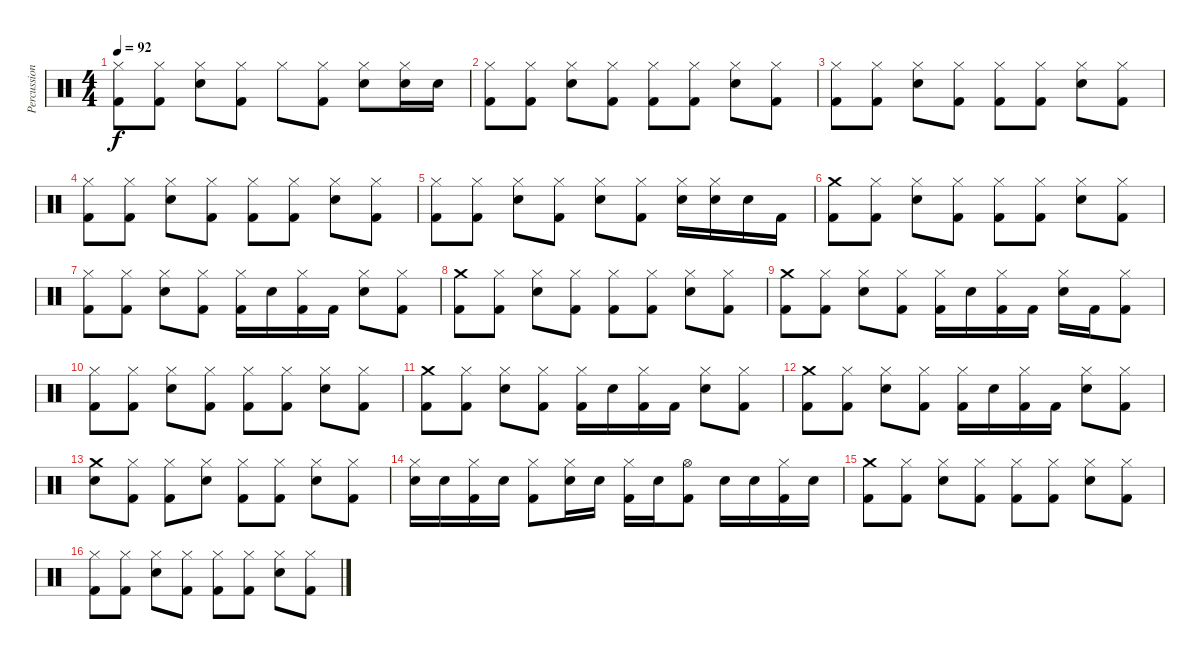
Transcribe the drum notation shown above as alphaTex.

\track ("Percussions" "Percussion") {instrument percussion}
\staff {score}
\articulation defaults
\ts (4 4)
\tempo 92
\clef neutral
\ks c
("Hi-Hat (closed)" "Kick (hit) 2").8{dy f} ("Hi-Hat (closed)" "Kick (hit) 2").8 ("Hi-Hat (closed)" "Electric Snare (hit)").8 ("Hi-Hat (closed)" "Kick (hit) 2").8 "Hi-Hat (closed)".8 ("Hi-Hat (closed)" "Kick (hit) 2").8 ("Hi-Hat (closed)" "Electric Snare (hit)").8 ("Hi-Hat (closed)" "Electric Snare (hit)").16 "Electric Snare (hit)".16 |
("Hi-Hat (closed)" "Kick (hit) 2").8 ("Hi-Hat (closed)" "Kick (hit) 2").8 ("Hi-Hat (closed)" "Electric Snare (hit)").8 ("Hi-Hat (closed)" "Kick (hit) 2").8 ("Hi-Hat (closed)" "Kick (hit) 2").8 ("Hi-Hat (closed)" "Kick (hit) 2").8 ("Hi-Hat (closed)" "Electric Snare (hit)").8 ("Hi-Hat (closed)" "Kick (hit) 2").8 |
("Hi-Hat (closed)" "Kick (hit) 2").8 ("Hi-Hat (closed)" "Kick (hit) 2").8 ("Hi-Hat (closed)" "Electric Snare (hit)").8 ("Hi-Hat (closed)" "Kick (hit) 2").8 ("Hi-Hat (closed)" "Kick (hit) 2").8 ("Hi-Hat (closed)" "Kick (hit) 2").8 ("Hi-Hat (closed)" "Electric Snare (hit)").8 ("Hi-Hat (closed)" "Kick (hit) 2").8 |
("Hi-Hat (closed)" "Kick (hit) 2").8 ("Hi-Hat (closed)" "Kick (hit) 2").8 ("Hi-Hat (closed)" "Electric Snare (hit)").8 ("Hi-Hat (closed)" "Kick (hit) 2").8 ("Hi-Hat (closed)" "Kick (hit) 2").8 ("Hi-Hat (closed)" "Kick (hit) 2").8 ("Hi-Hat (closed)" "Electric Snare (hit)").8 ("Hi-Hat (closed)" "Kick (hit) 2").8 |
("Hi-Hat (closed)" "Kick (hit) 2").8 ("Hi-Hat (closed)" "Kick (hit) 2").8 ("Hi-Hat (closed)" "Electric Snare (hit)").8 ("Hi-Hat (closed)" "Kick (hit) 2").8 ("Hi-Hat (closed)" "Electric Snare (hit)").8 ("Hi-Hat (closed)" "Kick (hit) 2").8 ("Hi-Hat (closed)" "Electric Snare (hit)").16 ("Hi-Hat (closed)" "Snare (hit) 2").16 "Snare (hit) 2".16 "Kick (hit) 2".16 |
("Crash medium (hit)" "Kick (hit) 2").8 ("Hi-Hat (closed)" "Kick (hit) 2").8 ("Hi-Hat (closed)" "Electric Snare (hit)").8 ("Hi-Hat (closed)" "Kick (hit) 2").8 ("Hi-Hat (closed)" "Kick (hit) 2").8 ("Hi-Hat (closed)" "Kick (hit) 2").8 ("Hi-Hat (closed)" "Electric Snare (hit)").8 ("Hi-Hat (closed)" "Kick (hit) 2").8 |
("Hi-Hat (closed)" "Kick (hit) 2").8 ("Hi-Hat (closed)" "Kick (hit) 2").8 ("Hi-Hat (closed)" "Electric Snare (hit)").8 ("Hi-Hat (closed)" "Kick (hit) 2").8 ("Hi-Hat (closed)" "Kick (hit) 2").16 "Electric Snare (hit)".16 ("Hi-Hat (closed)" "Kick (hit) 2").16 "Kick (hit) 2".16 ("Hi-Hat (closed)" "Electric Snare (hit)").8 ("Hi-Hat (closed)" "Kick (hit) 2").8 |
("Crash medium (hit)" "Kick (hit) 2").8 ("Hi-Hat (closed)" "Kick (hit) 2").8 ("Hi-Hat (closed)" "Electric Snare (hit)").8 ("Hi-Hat (closed)" "Kick (hit) 2").8 ("Hi-Hat (closed)" "Kick (hit) 2").8 ("Hi-Hat (closed)" "Kick (hit) 2").8 ("Hi-Hat (closed)" "Electric Snare (hit)").8 ("Hi-Hat (closed)" "Kick (hit) 2").8 |
("Crash medium (hit)" "Kick (hit) 2").8 ("Hi-Hat (closed)" "Kick (hit) 2").8 ("Hi-Hat (closed)" "Electric Snare (hit)").8 ("Hi-Hat (closed)" "Kick (hit) 2").8 ("Hi-Hat (closed)" "Kick (hit) 2").16 "Snare (hit) 2".16 ("Hi-Hat (closed)" "Kick (hit) 2").16 "Kick (hit) 2".16 ("Hi-Hat (closed)" "Electric Snare (hit)").16 "Kick (hit) 2".16 ("Hi-Hat (closed)" "Kick (hit) 2").8 |
("Hi-Hat (closed)" "Kick (hit) 2").8 ("Hi-Hat (closed)" "Kick (hit) 2").8 ("Hi-Hat (closed)" "Electric Snare (hit)").8 ("Hi-Hat (closed)" "Kick (hit) 2").8 ("Hi-Hat (closed)" "Kick (hit) 2").8 ("Hi-Hat (closed)" "Kick (hit) 2").8 ("Hi-Hat (closed)" "Electric Snare (hit)").8 ("Hi-Hat (closed)" "Kick (hit) 2").8 |
("Crash medium (hit)" "Kick (hit) 2").8 ("Hi-Hat (closed)" "Kick (hit) 2").8 ("Hi-Hat (closed)" "Electric Snare (hit)").8 ("Hi-Hat (closed)" "Kick (hit) 2").8 ("Hi-Hat (closed)" "Kick (hit) 2").16 "Snare (hit) 2".16 ("Hi-Hat (closed)" "Kick (hit) 2").16 "Kick (hit) 2".16 ("Hi-Hat (closed)" "Electric Snare (hit)").8 ("Hi-Hat (closed)" "Kick (hit) 2").8 |
("Crash medium (hit)" "Kick (hit) 2").8 ("Hi-Hat (closed)" "Kick (hit) 2").8 ("Hi-Hat (closed)" "Electric Snare (hit)").8 ("Hi-Hat (closed)" "Kick (hit) 2").8 ("Hi-Hat (closed)" "Kick (hit) 2").16 "Snare (hit) 2".16 ("Hi-Hat (closed)" "Kick (hit) 2").16 "Kick (hit) 2".16 ("Hi-Hat (closed)" "Electric Snare (hit)").8 ("Hi-Hat (closed)" "Kick (hit) 2").8 |
("Crash medium (hit)" "Electric Snare (hit)").8 ("Hi-Hat (closed)" "Kick (hit) 2").8 ("Hi-Hat (closed)" "Kick (hit) 2").8 ("Hi-Hat (closed)" "Electric Snare (hit)").8 ("Hi-Hat (closed)" "Kick (hit) 2").8 ("Hi-Hat (closed)" "Kick (hit) 2").8 ("Hi-Hat (closed)" "Electric Snare (hit)").8 ("Hi-Hat (closed)" "Kick (hit) 2").8 |
("Hi-Hat (closed)" "Electric Snare (hit)").16 "Snare (hit) 2".16 ("Hi-Hat (closed)" "Kick (hit) 2").16 "Snare (hit) 2".16 ("Hi-Hat (closed)" "Kick (hit) 2").8 ("Hi-Hat (closed)" "Electric Snare (hit)").16 "Snare (hit) 2".16 ("Hi-Hat (closed)" "Kick (hit) 2").16 "Snare (hit) 2".16 ("Hi-Hat (open)" "Kick (hit) 2").8 "Electric Snare (hit)".16 "Snare (hit) 2".16 ("Hi-Hat (closed)" "Kick (hit) 2").16 "Snare (hit) 2".16 |
("Crash medium (hit)" "Kick (hit) 2").8 ("Hi-Hat (closed)" "Kick (hit) 2").8 ("Hi-Hat (closed)" "Electric Snare (hit)").8 ("Hi-Hat (closed)" "Kick (hit) 2").8 ("Hi-Hat (closed)" "Kick (hit) 2").8 ("Hi-Hat (closed)" "Kick (hit) 2").8 ("Hi-Hat (closed)" "Electric Snare (hit)").8 ("Hi-Hat (closed)" "Kick (hit) 2").8 |
("Hi-Hat (closed)" "Kick (hit) 2").8 ("Hi-Hat (closed)" "Kick (hit) 2").8 ("Hi-Hat (closed)" "Electric Snare (hit)").8 ("Hi-Hat (closed)" "Kick (hit) 2").8 ("Hi-Hat (closed)" "Kick (hit) 2").8 ("Hi-Hat (closed)" "Kick (hit) 2").8 ("Hi-Hat (closed)" "Electric Snare (hit)").8 ("Hi-Hat (closed)" "Kick (hit) 2").8
